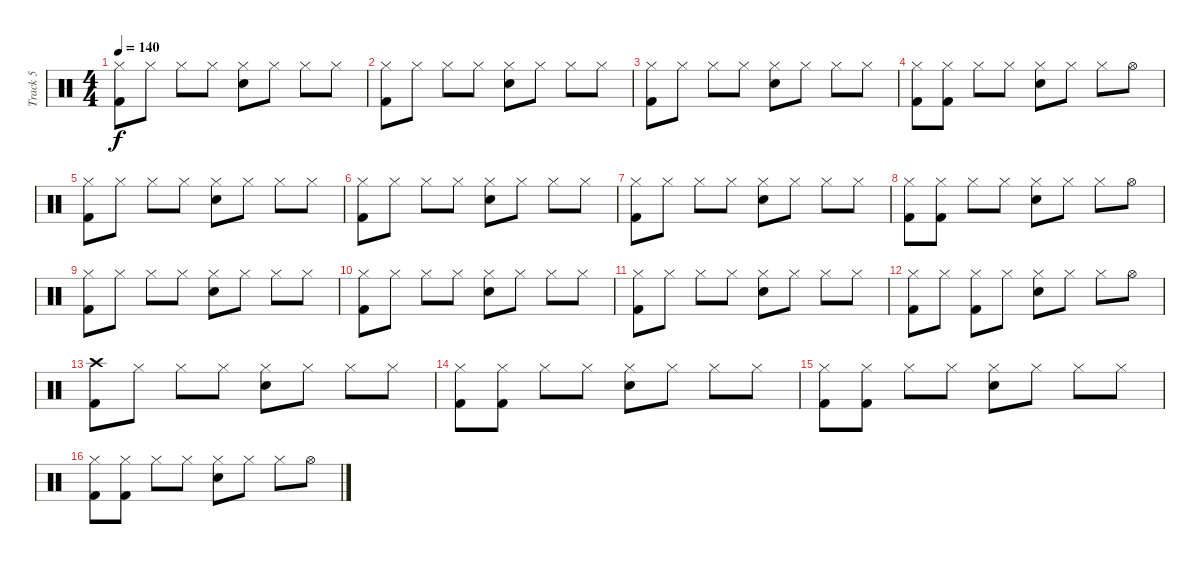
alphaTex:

\track ("Track 5" "Track 5") {instrument percussion}
\staff {score}
\articulation defaults
\ts (4 4)
\tempo 140
\clef neutral
\ks c
("Kick (hit) 2" "Hi-Hat (closed)").8{dy f} "Hi-Hat (closed)".8 "Hi-Hat (closed)".8 "Hi-Hat (closed)".8 ("Electric Snare (hit)" "Hi-Hat (closed)").8 "Hi-Hat (closed)".8 "Hi-Hat (closed)".8 "Hi-Hat (closed)".8 |
("Kick (hit) 2" "Hi-Hat (closed)").8 "Hi-Hat (closed)".8 "Hi-Hat (closed)".8 "Hi-Hat (closed)".8 ("Electric Snare (hit)" "Hi-Hat (closed)").8 "Hi-Hat (closed)".8 "Hi-Hat (closed)".8 "Hi-Hat (closed)".8 |
("Kick (hit) 2" "Hi-Hat (closed)").8 "Hi-Hat (closed)".8 "Hi-Hat (closed)".8 "Hi-Hat (closed)".8 ("Electric Snare (hit)" "Hi-Hat (closed)").8 "Hi-Hat (closed)".8 "Hi-Hat (closed)".8 "Hi-Hat (closed)".8 |
("Kick (hit) 2" "Hi-Hat (closed)").8 ("Hi-Hat (closed)" "Kick (hit) 2").8 "Hi-Hat (closed)".8 "Hi-Hat (closed)".8 ("Electric Snare (hit)" "Hi-Hat (closed)").8 "Hi-Hat (closed)".8 "Hi-Hat (closed)".8 "Hi-Hat (open)".8 |
("Kick (hit) 2" "Hi-Hat (closed)").8 "Hi-Hat (closed)".8 "Hi-Hat (closed)".8 "Hi-Hat (closed)".8 ("Electric Snare (hit)" "Hi-Hat (closed)").8 "Hi-Hat (closed)".8 "Hi-Hat (closed)".8 "Hi-Hat (closed)".8 |
("Kick (hit) 2" "Hi-Hat (closed)").8 "Hi-Hat (closed)".8 "Hi-Hat (closed)".8 "Hi-Hat (closed)".8 ("Electric Snare (hit)" "Hi-Hat (closed)").8 "Hi-Hat (closed)".8 "Hi-Hat (closed)".8 "Hi-Hat (closed)".8 |
("Kick (hit) 2" "Hi-Hat (closed)").8 "Hi-Hat (closed)".8 "Hi-Hat (closed)".8 "Hi-Hat (closed)".8 ("Electric Snare (hit)" "Hi-Hat (closed)").8 "Hi-Hat (closed)".8 "Hi-Hat (closed)".8 "Hi-Hat (closed)".8 |
("Kick (hit) 2" "Hi-Hat (closed)").8 ("Hi-Hat (closed)" "Kick (hit) 2").8 "Hi-Hat (closed)".8 "Hi-Hat (closed)".8 ("Electric Snare (hit)" "Hi-Hat (closed)").8 "Hi-Hat (closed)".8 "Hi-Hat (closed)".8 "Hi-Hat (open)".8 |
("Kick (hit) 2" "Hi-Hat (closed)").8 "Hi-Hat (closed)".8 "Hi-Hat (closed)".8 "Hi-Hat (closed)".8 ("Electric Snare (hit)" "Hi-Hat (closed)").8 "Hi-Hat (closed)".8 "Hi-Hat (closed)".8 "Hi-Hat (closed)".8 |
("Kick (hit) 2" "Hi-Hat (closed)").8 "Hi-Hat (closed)".8 "Hi-Hat (closed)".8 "Hi-Hat (closed)".8 ("Electric Snare (hit)" "Hi-Hat (closed)").8 "Hi-Hat (closed)".8 "Hi-Hat (closed)".8 "Hi-Hat (closed)".8 |
("Kick (hit) 2" "Hi-Hat (closed)").8 "Hi-Hat (closed)".8 "Hi-Hat (closed)".8 "Hi-Hat (closed)".8 ("Electric Snare (hit)" "Hi-Hat (closed)").8 "Hi-Hat (closed)".8 "Hi-Hat (closed)".8 "Hi-Hat (closed)".8 |
("Kick (hit) 2" "Hi-Hat (closed)").8 "Hi-Hat (closed)".8 ("Hi-Hat (closed)" "Kick (hit) 2").8{beam Down} "Hi-Hat (closed)".8{beam Down} ("Electric Snare (hit)" "Hi-Hat (closed)").8 "Hi-Hat (closed)".8 "Hi-Hat (closed)".8 "Hi-Hat (open)".8 |
("Kick (hit) 2" "Crash high (hit)").8 "Hi-Hat (closed)".8 "Hi-Hat (closed)".8 "Hi-Hat (closed)".8 ("Electric Snare (hit)" "Hi-Hat (closed)").8 "Hi-Hat (closed)".8 "Hi-Hat (closed)".8 "Hi-Hat (closed)".8 |
("Kick (hit) 2" "Hi-Hat (closed)").8 ("Hi-Hat (closed)" "Kick (hit) 2").8 "Hi-Hat (closed)".8 "Hi-Hat (closed)".8 ("Electric Snare (hit)" "Hi-Hat (closed)").8 "Hi-Hat (closed)".8 "Hi-Hat (closed)".8 "Hi-Hat (closed)".8 |
("Kick (hit) 2" "Hi-Hat (closed)").8 ("Hi-Hat (closed)" "Kick (hit) 2").8 "Hi-Hat (closed)".8 "Hi-Hat (closed)".8 ("Electric Snare (hit)" "Hi-Hat (closed)").8 "Hi-Hat (closed)".8 "Hi-Hat (closed)".8 "Hi-Hat (closed)".8 |
("Kick (hit) 2" "Hi-Hat (closed)").8 ("Hi-Hat (closed)" "Kick (hit) 2").8 "Hi-Hat (closed)".8 "Hi-Hat (closed)".8 ("Electric Snare (hit)" "Hi-Hat (closed)").8 "Hi-Hat (closed)".8 "Hi-Hat (closed)".8 "Hi-Hat (open)".8
